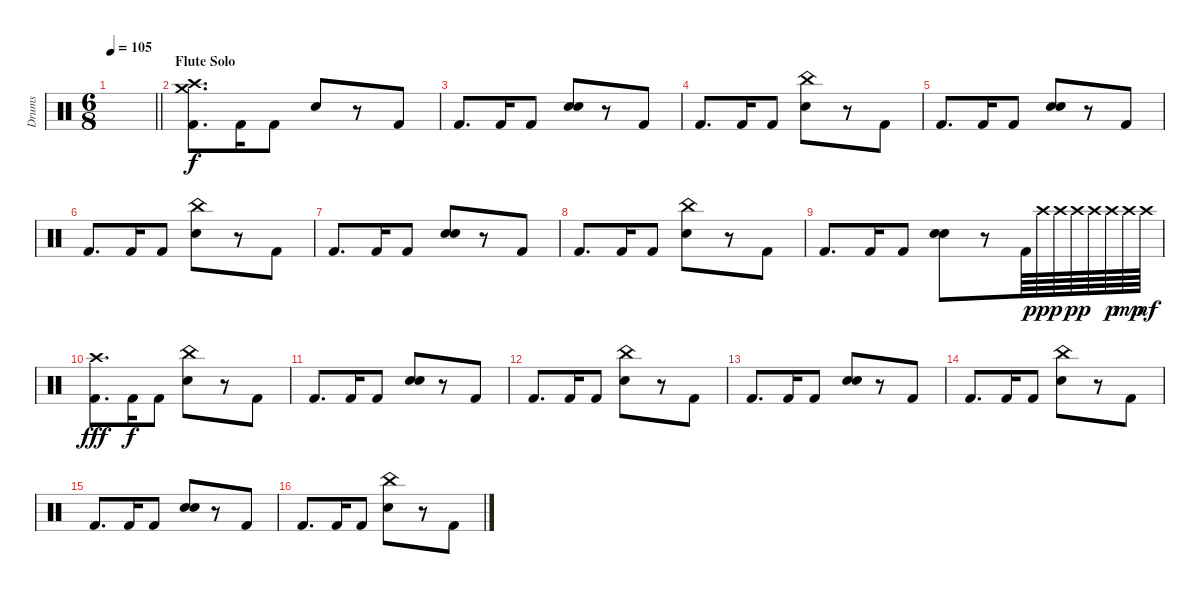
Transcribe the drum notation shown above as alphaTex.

\track ("Drums" "Drums") {instrument percussion}
\staff {score}
\articulation defaults
\ts (6 8)
\tempo 105
\clef neutral
\barLineRight lightlight
\ks c
|
\section ("" "Flute Solo")
("Crash high (hit)" "Crash medium (hit)" "Kick (hit) 2").8{d} "Kick (hit) 2".16 "Kick (hit) 2".8 "Electric Snare (hit)".8 r.8 "Kick (hit) 2".8 |
"Kick (hit) 2".8{d} "Kick (hit) 2".16 "Kick (hit) 2".8 ("Hand Clap (hit)" "Snare (hit) 2").8 r.8 "Kick (hit) 2".8 |
"Kick (hit) 2".8{d} "Kick (hit) 2".16 "Kick (hit) 2".8 ("China (hit)" "Electric Snare (hit)").8 r.8 "Kick (hit) 2".8 |
"Kick (hit) 2".8{d} "Kick (hit) 2".16 "Kick (hit) 2".8 ("Hand Clap (hit)" "Snare (hit) 2").8 r.8 "Kick (hit) 2".8 |
"Kick (hit) 2".8{d} "Kick (hit) 2".16 "Kick (hit) 2".8 ("China (hit)" "Electric Snare (hit)").8 r.8 "Kick (hit) 2".8 |
"Kick (hit) 2".8{d} "Kick (hit) 2".16 "Kick (hit) 2".8 ("Hand Clap (hit)" "Snare (hit) 2").8 r.8 "Kick (hit) 2".8 |
"Kick (hit) 2".8{d} "Kick (hit) 2".16 "Kick (hit) 2".8 ("China (hit)" "Electric Snare (hit)").8 r.8 "Kick (hit) 2".8 |
"Kick (hit) 2".8{d} "Kick (hit) 2".16 "Kick (hit) 2".8 ("Hand Clap (hit)" "Snare (hit) 2").8 r.8 "Kick (hit) 2".64 "Crash high (hit)".64{dy ppp} "Crash high (hit)".64 "Crash high (hit)".64{dy pp} "Crash high (hit)".64 "Crash high (hit)".64{dy p} "Crash high (hit)".64{dy mp} "Crash high (hit)".64{dy mf} |
("Crash high (hit)" "Kick (hit) 2").8{d dy fff} "Kick (hit) 2".16{dy f} "Kick (hit) 2".8 ("China (hit)" "Electric Snare (hit)").8 r.8 "Kick (hit) 2".8 |
"Kick (hit) 2".8{d} "Kick (hit) 2".16 "Kick (hit) 2".8 ("Hand Clap (hit)" "Snare (hit) 2").8 r.8 "Kick (hit) 2".8 |
"Kick (hit) 2".8{d} "Kick (hit) 2".16 "Kick (hit) 2".8 ("China (hit)" "Electric Snare (hit)").8 r.8 "Kick (hit) 2".8 |
"Kick (hit) 2".8{d} "Kick (hit) 2".16 "Kick (hit) 2".8 ("Hand Clap (hit)" "Snare (hit) 2").8 r.8 "Kick (hit) 2".8 |
"Kick (hit) 2".8{d} "Kick (hit) 2".16 "Kick (hit) 2".8 ("China (hit)" "Electric Snare (hit)").8 r.8 "Kick (hit) 2".8 |
"Kick (hit) 2".8{d} "Kick (hit) 2".16 "Kick (hit) 2".8 ("Hand Clap (hit)" "Snare (hit) 2").8 r.8 "Kick (hit) 2".8 |
"Kick (hit) 2".8{d} "Kick (hit) 2".16 "Kick (hit) 2".8 ("China (hit)" "Electric Snare (hit)").8 r.8 "Kick (hit) 2".8
